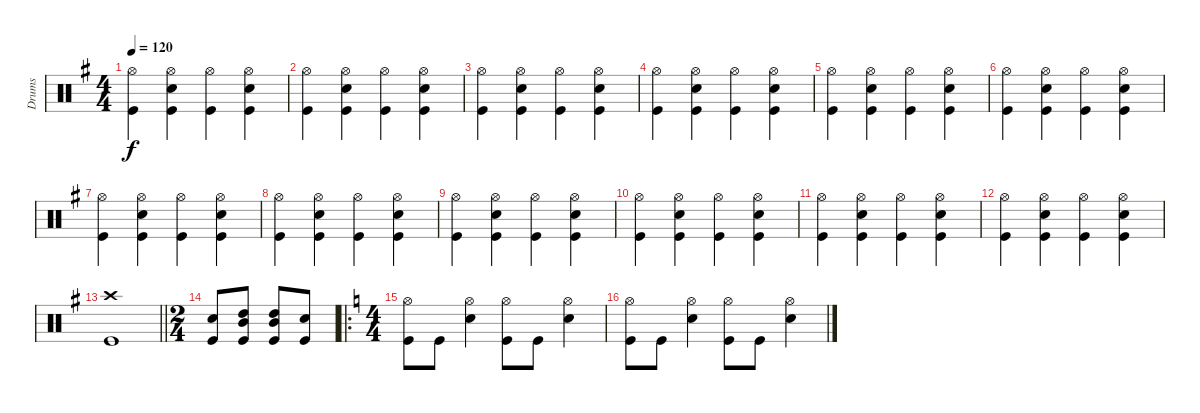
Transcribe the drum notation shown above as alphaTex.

\track ("Drums" "Drums") {instrument percussion}
\staff {score}
\articulation defaults
\ts (4 4)
\tempo 120
\clef neutral
\ks g
("Hi-Hat (open)" "Kick (hit)").4{dy f} ("Snare (hit) 2" "Kick (hit)" "Hi-Hat (open)").4 ("Hi-Hat (open)" "Kick (hit)").4 ("Snare (hit) 2" "Kick (hit)" "Hi-Hat (open)").4 |
("Hi-Hat (open)" "Kick (hit)").4 ("Snare (hit) 2" "Kick (hit)" "Hi-Hat (open)").4 ("Hi-Hat (open)" "Kick (hit)").4 ("Snare (hit) 2" "Kick (hit)" "Hi-Hat (open)").4 |
("Hi-Hat (open)" "Kick (hit)").4 ("Snare (hit) 2" "Kick (hit)" "Hi-Hat (open)").4 ("Hi-Hat (open)" "Kick (hit)").4 ("Snare (hit) 2" "Kick (hit)" "Hi-Hat (open)").4 |
("Hi-Hat (open)" "Kick (hit)").4 ("Snare (hit) 2" "Kick (hit)" "Hi-Hat (open)").4 ("Hi-Hat (open)" "Kick (hit)").4 ("Snare (hit) 2" "Kick (hit)" "Hi-Hat (open)").4 |
("Hi-Hat (open)" "Kick (hit)").4 ("Snare (hit) 2" "Kick (hit)" "Hi-Hat (open)").4 ("Hi-Hat (open)" "Kick (hit)").4 ("Snare (hit) 2" "Kick (hit)" "Hi-Hat (open)").4 |
("Hi-Hat (open)" "Kick (hit)").4 ("Snare (hit) 2" "Kick (hit)" "Hi-Hat (open)").4 ("Hi-Hat (open)" "Kick (hit)").4 ("Snare (hit) 2" "Kick (hit)" "Hi-Hat (open)").4 |
("Hi-Hat (open)" "Kick (hit)").4 ("Snare (hit) 2" "Kick (hit)" "Hi-Hat (open)").4 ("Hi-Hat (open)" "Kick (hit)").4 ("Snare (hit) 2" "Kick (hit)" "Hi-Hat (open)").4 |
("Hi-Hat (open)" "Kick (hit)").4 ("Snare (hit) 2" "Kick (hit)" "Hi-Hat (open)").4 ("Hi-Hat (open)" "Kick (hit)").4 ("Snare (hit) 2" "Kick (hit)" "Hi-Hat (open)").4 |
("Hi-Hat (open)" "Kick (hit)").4 ("Snare (hit) 2" "Kick (hit)" "Hi-Hat (open)").4 ("Hi-Hat (open)" "Kick (hit)").4 ("Snare (hit) 2" "Kick (hit)" "Hi-Hat (open)").4 |
("Hi-Hat (open)" "Kick (hit)").4 ("Snare (hit) 2" "Kick (hit)" "Hi-Hat (open)").4 ("Hi-Hat (open)" "Kick (hit)").4 ("Snare (hit) 2" "Kick (hit)" "Hi-Hat (open)").4 |
("Hi-Hat (open)" "Kick (hit)").4 ("Snare (hit) 2" "Kick (hit)" "Hi-Hat (open)").4 ("Hi-Hat (open)" "Kick (hit)").4 ("Snare (hit) 2" "Kick (hit)" "Hi-Hat (open)").4 |
("Hi-Hat (open)" "Kick (hit)").4 ("Snare (hit) 2" "Kick (hit)" "Hi-Hat (open)").4 ("Hi-Hat (open)" "Kick (hit)").4 ("Snare (hit) 2" "Kick (hit)" "Hi-Hat (open)").4 |
\barLineRight lightlight
("Kick (hit)" "Crash high (hit)").1 |
\ts (2 4)
("Kick (hit)" "Snare (hit) 2").8 ("High Tom (hit)" "Mid Tom (hit)" "Kick (hit)").8 ("High Tom (hit)" "Mid Tom (hit)" "Kick (hit)").8 ("Snare (hit) 2" "Kick (hit)").8 |
\ro
\ts (4 4)
\ks c
("Hi-Hat (open)" "Kick (hit)").8 "Kick (hit)".8 ("Snare (hit) 2" "Hi-Hat (open)").4 ("Hi-Hat (open)" "Kick (hit)").8 "Kick (hit)".8 ("Snare (hit) 2" "Hi-Hat (open)").4 |
("Hi-Hat (open)" "Kick (hit)").8 "Kick (hit)".8 ("Snare (hit) 2" "Hi-Hat (open)").4 ("Hi-Hat (open)" "Kick (hit)").8 "Kick (hit)".8 ("Snare (hit) 2" "Hi-Hat (open)").4
